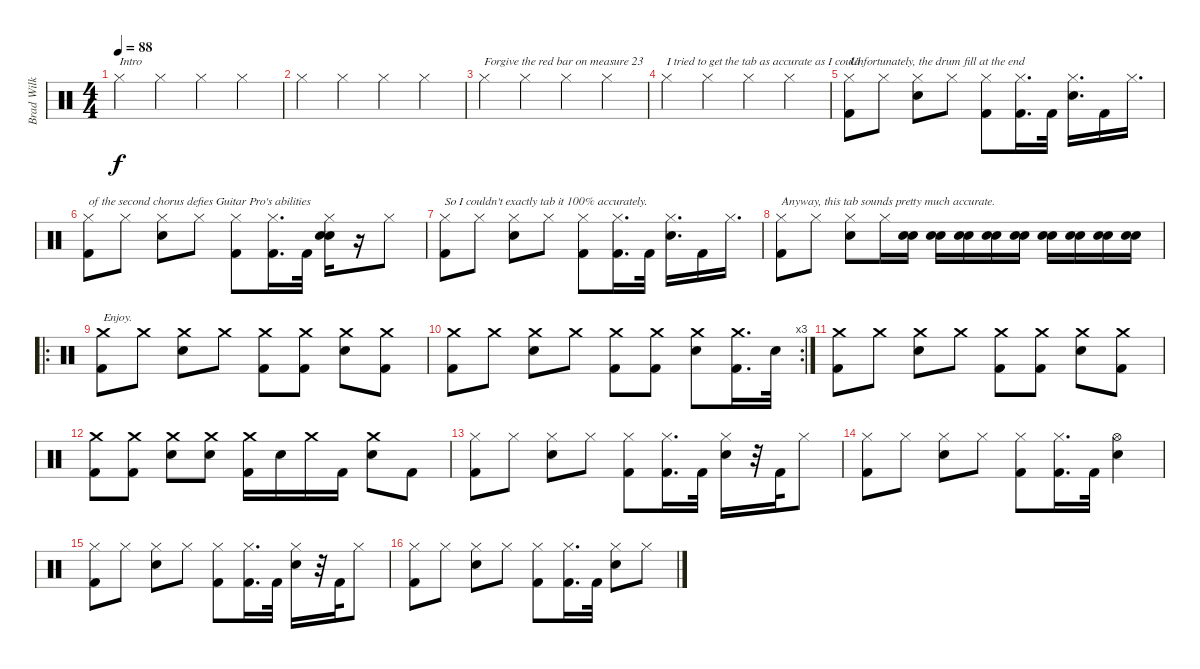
\track ("Brad Wilk" "Brad Wilk") {instrument percussion}
\staff {score}
\articulation defaults
\ts (4 4)
\tempo 88
\clef neutral
\ks c "Hi-Hat (closed)".4{txt "Intro" dy f} "Hi-Hat (closed)".4 "Hi-Hat (closed)".4 "Hi-Hat (closed)".4
|
"Hi-Hat (closed)".4 "Hi-Hat (closed)".4 "Hi-Hat (closed)".4 "Hi-Hat (closed)".4 |
"Hi-Hat (closed)".4{txt "Forgive the red bar on measure 23"} "Hi-Hat (closed)".4 "Hi-Hat (closed)".4 "Hi-Hat (closed)".4 |
"Hi-Hat (closed)".4{txt "I tried to get the tab as accurate as I could"} "Hi-Hat (closed)".4 "Hi-Hat (closed)".4 "Hi-Hat (closed)".4 |
("Hi-Hat (closed)" "Kick (hit) 2").8{txt "Unfortunately, the drum fill at the end"} "Hi-Hat (closed)".8 ("Hi-Hat (closed)" "Snare (hit) 2").8 "Hi-Hat (closed)".8 ("Hi-Hat (closed)" "Kick (hit) 2").8 ("Hi-Hat (closed)" "Kick (hit) 2").16{d} "Kick (hit) 2".32 ("Hi-Hat (closed)" "Snare (hit) 2").16{d} "Kick (hit) 2".16 "Hi-Hat (closed)".16{d} |
("Hi-Hat (closed)" "Kick (hit) 2").8{txt "of the second chorus defies Guitar Pro's abilities"} "Hi-Hat (closed)".8 ("Hi-Hat (closed)" "Snare (hit) 2").8 "Hi-Hat (closed)".8 ("Hi-Hat (closed)" "Kick (hit) 2").8 ("Hi-Hat (closed)" "Kick (hit) 2").16{d} "Kick (hit) 2".32 ("Hi-Hat (closed)" "Snare (hit) 2" "Snare (hit) 2").16 r.16 "Hi-Hat (closed)".8 |
("Hi-Hat (closed)" "Kick (hit) 2").8{txt "So I couldn't exactly tab it 100% accurately."} "Hi-Hat (closed)".8 ("Hi-Hat (closed)" "Snare (hit) 2").8 "Hi-Hat (closed)".8 ("Hi-Hat (closed)" "Kick (hit) 2").8 ("Hi-Hat (closed)" "Kick (hit) 2").16{d} "Kick (hit) 2".32 ("Hi-Hat (closed)" "Snare (hit) 2").16{d} "Kick (hit) 2".16 "Hi-Hat (closed)".16{d} |
("Hi-Hat (closed)" "Kick (hit) 2").8{txt "Anyway, this tab sounds pretty much accurate."} "Hi-Hat (closed)".8 ("Hi-Hat (closed)" "Snare (hit) 2").8 "Hi-Hat (closed)".16 ("Snare (hit) 2" "Snare (hit) 2").16 ("Snare (hit) 2" "Snare (hit) 2").16 ("Snare (hit) 2" "Snare (hit) 2").16 ("Snare (hit) 2" "Snare (hit) 2").16 ("Snare (hit) 2" "Snare (hit) 2").16 ("Snare (hit) 2" "Snare (hit) 2").16 ("Snare (hit) 2" "Snare (hit) 2").16 ("Snare (hit) 2" "Snare (hit) 2").16 ("Snare (hit) 2" "Snare (hit) 2").16 |
\ro
("Crash medium (hit)" "Kick (hit) 2").8{txt "Enjoy."} "Crash medium (hit)".8 ("Crash medium (hit)" "Snare (hit) 2").8 "Crash medium (hit)".8 ("Crash medium (hit)" "Kick (hit) 2").8 ("Crash medium (hit)" "Kick (hit) 2").8 ("Crash medium (hit)" "Snare (hit) 2").8 ("Crash medium (hit)" "Kick (hit) 2").8 |
\rc 3
("Crash medium (hit)" "Kick (hit) 2").8 "Crash medium (hit)".8 ("Crash medium (hit)" "Snare (hit) 2").8 "Crash medium (hit)".8 ("Crash medium (hit)" "Kick (hit) 2").8 ("Crash medium (hit)" "Kick (hit) 2").8 ("Crash medium (hit)" "Snare (hit) 2").8 ("Crash medium (hit)" "Kick (hit) 2").16{d} "Snare (hit) 2".32 |
("Crash medium (hit)" "Kick (hit) 2").8 "Crash medium (hit)".8 ("Crash medium (hit)" "Snare (hit) 2").8 "Crash medium (hit)".8 ("Crash medium (hit)" "Kick (hit) 2").8 ("Crash medium (hit)" "Kick (hit) 2").8 ("Crash medium (hit)" "Snare (hit) 2").8 ("Crash medium (hit)" "Kick (hit) 2").8 |
("Crash medium (hit)" "Kick (hit) 2").8 ("Crash medium (hit)" "Kick (hit) 2").8 ("Crash medium (hit)" "Snare (hit) 2").8 ("Crash medium (hit)" "Snare (hit) 2").8 ("Crash medium (hit)" "Kick (hit) 2").16 "Snare (hit) 2".16 "Crash medium (hit)".16 "Kick (hit) 2".16 ("Crash medium (hit)" "Snare (hit) 2").8 "Kick (hit) 2".8 |
("Hi-Hat (closed)" "Kick (hit) 2").8 "Hi-Hat (closed)".8 ("Hi-Hat (closed)" "Snare (hit) 2").8 "Hi-Hat (closed)".8 ("Hi-Hat (closed)" "Kick (hit) 2").8 ("Hi-Hat (closed)" "Kick (hit) 2").16{d} "Kick (hit) 2".32 ("Hi-Hat (closed)" "Snare (hit) 2").16 r.32 "Kick (hit) 2".32 "Hi-Hat (closed)".8 |
("Hi-Hat (closed)" "Kick (hit) 2").8 "Hi-Hat (closed)".8 ("Hi-Hat (closed)" "Snare (hit) 2").8 "Hi-Hat (closed)".8 ("Hi-Hat (closed)" "Kick (hit) 2").8 ("Hi-Hat (closed)" "Kick (hit) 2").16{d} "Kick (hit) 2".32 ("Hi-Hat (open)" "Snare (hit) 2").4 |
("Hi-Hat (closed)" "Kick (hit) 2").8 "Hi-Hat (closed)".8 ("Hi-Hat (closed)" "Snare (hit) 2").8 "Hi-Hat (closed)".8 ("Hi-Hat (closed)" "Kick (hit) 2").8 ("Hi-Hat (closed)" "Kick (hit) 2").16{d} "Kick (hit) 2".32 ("Hi-Hat (closed)" "Snare (hit) 2").16 r.32 "Kick (hit) 2".32 "Hi-Hat (closed)".8 |
("Hi-Hat (closed)" "Kick (hit) 2").8 "Hi-Hat (closed)".8 ("Hi-Hat (closed)" "Snare (hit) 2").8 "Hi-Hat (closed)".8 ("Hi-Hat (closed)" "Kick (hit) 2").8 ("Hi-Hat (closed)" "Kick (hit) 2").16{d} "Kick (hit) 2".32 ("Hi-Hat (closed)" "Snare (hit) 2").8 "Hi-Hat (closed)".8
